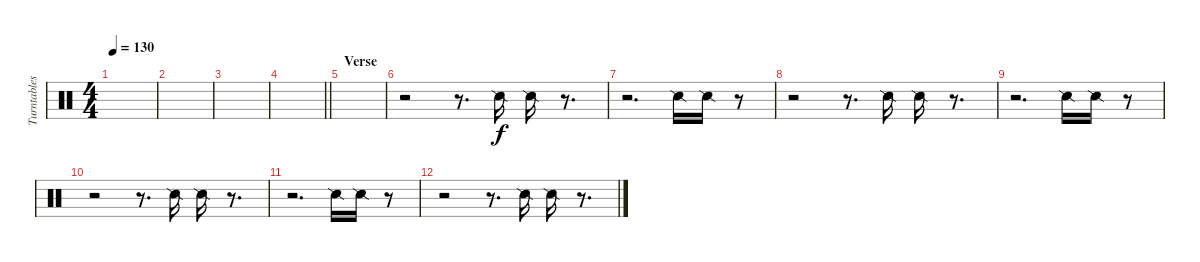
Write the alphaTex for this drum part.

\track ("Turntables - Joe Hahn" "Turntables") {instrument percussion}
\staff {score}
\articulation defaults
\ts (4 4)
\tempo 130
\clef neutral
\ks c
|
|
|
\barLineRight lightlight
|
\section ("" "Verse")
|
r.2 r.8{d} "Snare (side stick) 2".16 "Snare (side stick) 2".16 r.8{d} |
r.2{d} "Snare (side stick) 2".16 "Snare (side stick) 2".16 r.8 |
r.2 r.8{d} "Snare (side stick) 2".16 "Snare (side stick) 2".16 r.8{d} |
r.2{d} "Snare (side stick) 2".16 "Snare (side stick) 2".16 r.8 |
r.2 r.8{d} "Snare (side stick) 2".16 "Snare (side stick) 2".16 r.8{d} |
r.2{d} "Snare (side stick) 2".16 "Snare (side stick) 2".16 r.8 |
r.2 r.8{d} "Snare (side stick) 2".16 "Snare (side stick) 2".16 r.8{d}
